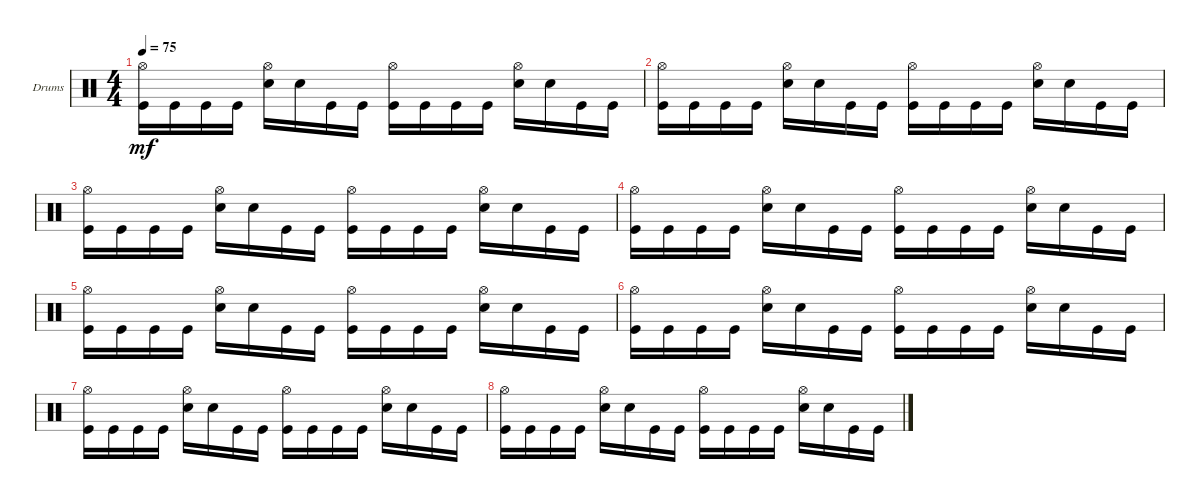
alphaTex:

\bracketExtendMode groupsimilarinstruments
\firstSystemTrackNameOrientation horizontal
\otherSystemsTrackNameOrientation horizontal
\track ("" "Drums") {instrument percussion}
\staff {score}
\articulation defaults
\ts (4 4)
\tempo 75
\clef neutral
\ks c
("Kick (hit)" "Hi-Hat (open)").16{dy mf} "Kick (hit)".16 "Kick (hit)".16 "Kick (hit)".16 ("Snare (hit) 2" "Hi-Hat (open)").16 "Snare (hit) 2".16 "Kick (hit)".16 "Kick (hit)".16 ("Kick (hit)" "Hi-Hat (open)").16 "Kick (hit)".16 "Kick (hit)".16 "Kick (hit)".16 ("Snare (hit) 2" "Hi-Hat (open)").16 "Snare (hit) 2".16 "Kick (hit)".16 "Kick (hit)".16 |
("Kick (hit)" "Hi-Hat (open)").16 "Kick (hit)".16 "Kick (hit)".16 "Kick (hit)".16 ("Snare (hit) 2" "Hi-Hat (open)").16 "Snare (hit) 2".16 "Kick (hit)".16 "Kick (hit)".16 ("Kick (hit)" "Hi-Hat (open)").16 "Kick (hit)".16 "Kick (hit)".16 "Kick (hit)".16 ("Snare (hit) 2" "Hi-Hat (open)").16 "Snare (hit) 2".16 "Kick (hit)".16 "Kick (hit)".16 |
("Kick (hit)" "Hi-Hat (open)").16 "Kick (hit)".16 "Kick (hit)".16 "Kick (hit)".16 ("Snare (hit) 2" "Hi-Hat (open)").16 "Snare (hit) 2".16 "Kick (hit)".16 "Kick (hit)".16 ("Kick (hit)" "Hi-Hat (open)").16 "Kick (hit)".16 "Kick (hit)".16 "Kick (hit)".16 ("Snare (hit) 2" "Hi-Hat (open)").16 "Snare (hit) 2".16 "Kick (hit)".16 "Kick (hit)".16 |
("Kick (hit)" "Hi-Hat (open)").16 "Kick (hit)".16 "Kick (hit)".16 "Kick (hit)".16 ("Snare (hit) 2" "Hi-Hat (open)").16 "Snare (hit) 2".16 "Kick (hit)".16 "Kick (hit)".16 ("Kick (hit)" "Hi-Hat (open)").16 "Kick (hit)".16 "Kick (hit)".16 "Kick (hit)".16 ("Snare (hit) 2" "Hi-Hat (open)").16 "Snare (hit) 2".16 "Kick (hit)".16 "Kick (hit)".16 |
("Kick (hit)" "Hi-Hat (open)").16 "Kick (hit)".16 "Kick (hit)".16 "Kick (hit)".16 ("Snare (hit) 2" "Hi-Hat (open)").16 "Snare (hit) 2".16 "Kick (hit)".16 "Kick (hit)".16 ("Kick (hit)" "Hi-Hat (open)").16 "Kick (hit)".16 "Kick (hit)".16 "Kick (hit)".16 ("Snare (hit) 2" "Hi-Hat (open)").16 "Snare (hit) 2".16 "Kick (hit)".16 "Kick (hit)".16 |
("Kick (hit)" "Hi-Hat (open)").16 "Kick (hit)".16 "Kick (hit)".16 "Kick (hit)".16 ("Snare (hit) 2" "Hi-Hat (open)").16 "Snare (hit) 2".16 "Kick (hit)".16 "Kick (hit)".16 ("Kick (hit)" "Hi-Hat (open)").16 "Kick (hit)".16 "Kick (hit)".16 "Kick (hit)".16 ("Snare (hit) 2" "Hi-Hat (open)").16 "Snare (hit) 2".16 "Kick (hit)".16 "Kick (hit)".16 |
("Kick (hit)" "Hi-Hat (open)").16 "Kick (hit)".16 "Kick (hit)".16 "Kick (hit)".16 ("Snare (hit) 2" "Hi-Hat (open)").16 "Snare (hit) 2".16 "Kick (hit)".16 "Kick (hit)".16 ("Kick (hit)" "Hi-Hat (open)").16 "Kick (hit)".16 "Kick (hit)".16 "Kick (hit)".16 ("Snare (hit) 2" "Hi-Hat (open)").16 "Snare (hit) 2".16 "Kick (hit)".16 "Kick (hit)".16 |
("Kick (hit)" "Hi-Hat (open)").16 "Kick (hit)".16 "Kick (hit)".16 "Kick (hit)".16 ("Snare (hit) 2" "Hi-Hat (open)").16 "Snare (hit) 2".16 "Kick (hit)".16 "Kick (hit)".16 ("Kick (hit)" "Hi-Hat (open)").16 "Kick (hit)".16 "Kick (hit)".16 "Kick (hit)".16 ("Snare (hit) 2" "Hi-Hat (open)").16 "Snare (hit) 2".16 "Kick (hit)".16 "Kick (hit)".16
